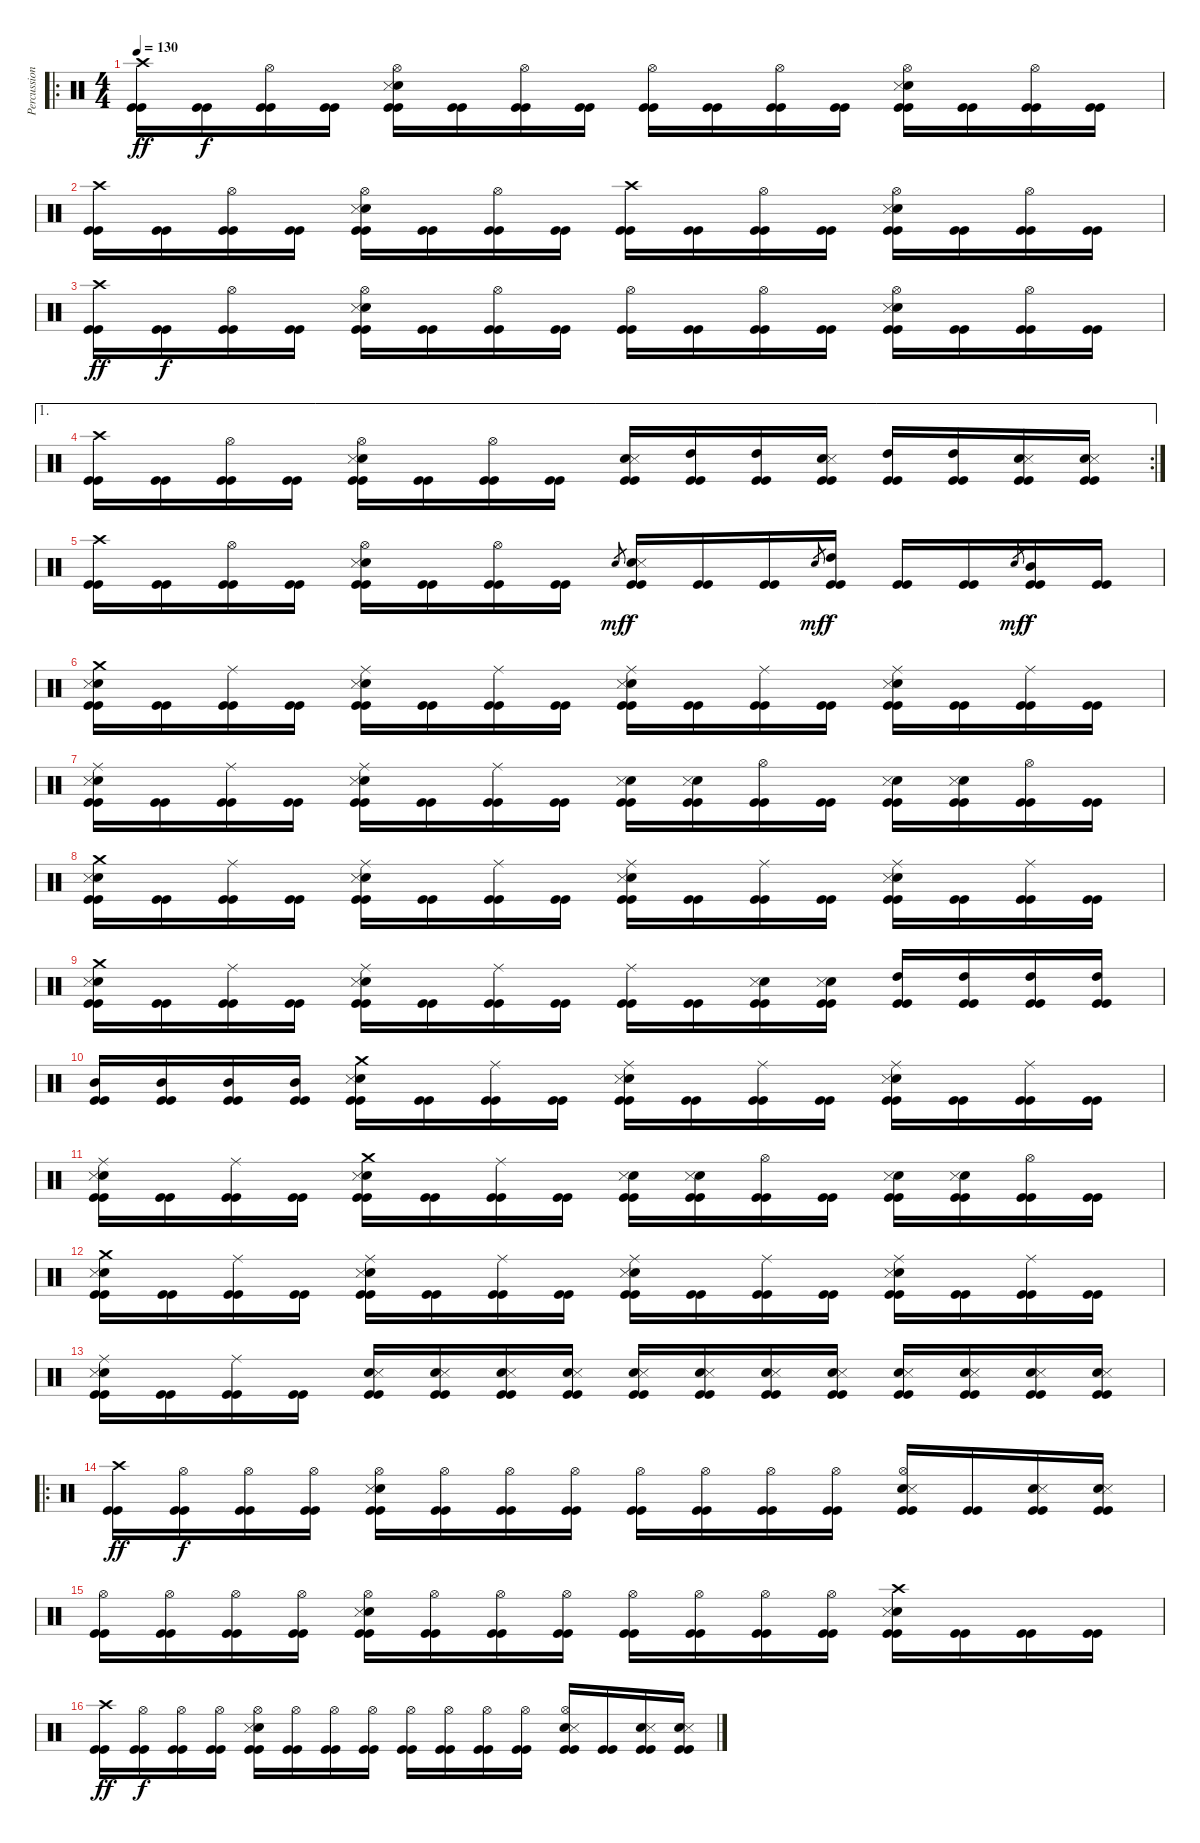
\track ("Percussion" "Percussion") {instrument percussion}
\staff {score}
\articulation defaults
\ro
\ts (4 4)
\tempo 130
\clef neutral
\ks c
("Crash high (hit)" "Kick (hit)" "Kick (hit)").16{dy ff} ("Kick (hit)" "Kick (hit)").16{dy f} ("Hi-Hat (open)" "Kick (hit)" "Kick (hit)").16 ("Kick (hit)" "Kick (hit)").16 ("Snare (hit) 2" "Snare (side stick) 3" "Hi-Hat (open)" "Kick (hit)" "Kick (hit)").16 ("Kick (hit)" "Kick (hit)").16 ("Hi-Hat (open)" "Kick (hit)" "Kick (hit)").16 ("Kick (hit)" "Kick (hit)").16 ("Hi-Hat (open)" "Kick (hit)" "Kick (hit)").16 ("Kick (hit)" "Kick (hit)").16 ("Hi-Hat (open)" "Kick (hit)" "Kick (hit)").16 ("Kick (hit)" "Kick (hit)").16 ("Snare (hit) 2" "Snare (side stick) 3" "Hi-Hat (open)" "Kick (hit)" "Kick (hit)").16 ("Kick (hit)" "Kick (hit)").16 ("Hi-Hat (open)" "Kick (hit)" "Kick (hit)").16 ("Kick (hit)" "Kick (hit)").16 |
("Crash high (hit)" "Kick (hit)" "Kick (hit)").16 ("Kick (hit)" "Kick (hit)").16 ("Hi-Hat (open)" "Kick (hit)" "Kick (hit)").16 ("Kick (hit)" "Kick (hit)").16 ("Snare (hit) 2" "Snare (side stick) 3" "Hi-Hat (open)" "Kick (hit)" "Kick (hit)").16 ("Kick (hit)" "Kick (hit)").16 ("Hi-Hat (open)" "Kick (hit)" "Kick (hit)").16 ("Kick (hit)" "Kick (hit)").16 ("Crash high (hit)" "Kick (hit)" "Kick (hit)").16 ("Kick (hit)" "Kick (hit)").16 ("Hi-Hat (open)" "Kick (hit)" "Kick (hit)").16 ("Kick (hit)" "Kick (hit)").16 ("Snare (hit) 2" "Snare (side stick) 3" "Hi-Hat (open)" "Kick (hit)" "Kick (hit)").16 ("Kick (hit)" "Kick (hit)").16 ("Hi-Hat (open)" "Kick (hit)" "Kick (hit)").16 ("Kick (hit)" "Kick (hit)").16 |
("Crash high (hit)" "Kick (hit)" "Kick (hit)").16{dy ff} ("Kick (hit)" "Kick (hit)").16{dy f} ("Hi-Hat (open)" "Kick (hit)" "Kick (hit)").16 ("Kick (hit)" "Kick (hit)").16 ("Snare (hit) 2" "Snare (side stick) 3" "Hi-Hat (open)" "Kick (hit)" "Kick (hit)").16 ("Kick (hit)" "Kick (hit)").16 ("Hi-Hat (open)" "Kick (hit)" "Kick (hit)").16 ("Kick (hit)" "Kick (hit)").16 ("Hi-Hat (open)" "Kick (hit)" "Kick (hit)").16 ("Kick (hit)" "Kick (hit)").16 ("Hi-Hat (open)" "Kick (hit)" "Kick (hit)").16 ("Kick (hit)" "Kick (hit)").16 ("Snare (hit) 2" "Snare (side stick) 3" "Hi-Hat (open)" "Kick (hit)" "Kick (hit)").16 ("Kick (hit)" "Kick (hit)").16 ("Hi-Hat (open)" "Kick (hit)" "Kick (hit)").16 ("Kick (hit)" "Kick (hit)").16 |
\ae 1
\rc 2
("Crash high (hit)" "Kick (hit)" "Kick (hit)").16 ("Kick (hit)" "Kick (hit)").16 ("Hi-Hat (open)" "Kick (hit)" "Kick (hit)").16 ("Kick (hit)" "Kick (hit)").16 ("Snare (hit) 2" "Snare (side stick) 3" "Hi-Hat (open)" "Kick (hit)" "Kick (hit)").16 ("Kick (hit)" "Kick (hit)").16 ("Hi-Hat (open)" "Kick (hit)" "Kick (hit)").16 ("Kick (hit)" "Kick (hit)").16 ("Snare (hit) 2" "Snare (side stick) 3" "Kick (hit)" "Kick (hit)").16 ("High Tom (hit)" "Kick (hit)" "Kick (hit)").16 ("High Tom (hit)" "Kick (hit)" "Kick (hit)").16 ("Snare (hit) 2" "Snare (side stick) 3" "Kick (hit)" "Kick (hit)").16 ("High Tom (hit)" "Kick (hit)" "Kick (hit)").16 ("High Tom (hit)" "Kick (hit)" "Kick (hit)").16 ("Snare (hit) 2" "Snare (side stick) 3" "Kick (hit)" "Kick (hit)").16 ("Snare (hit) 2" "Snare (side stick) 3" "Kick (hit)" "Kick (hit)").16 |
("Crash high (hit)" "Kick (hit)" "Kick (hit)").16 ("Kick (hit)" "Kick (hit)").16 ("Hi-Hat (open)" "Kick (hit)" "Kick (hit)").16 ("Kick (hit)" "Kick (hit)").16 ("Snare (hit) 2" "Snare (side stick) 3" "Hi-Hat (open)" "Kick (hit)" "Kick (hit)").16 ("Kick (hit)" "Kick (hit)").16 ("Hi-Hat (open)" "Kick (hit)" "Kick (hit)").16 ("Kick (hit)" "Kick (hit)").16 "Snare (hit)".8{gr dy mf} ("Snare (hit) 2" "Snare (side stick) 3" "Kick (hit)" "Kick (hit)").16{dy f} ("Kick (hit)" "Kick (hit)").16 ("Kick (hit)" "Kick (hit)").16 "Snare (hit)".8{gr dy mf} ("High Tom (hit)" "Kick (hit)" "Kick (hit)").16{dy f} ("Kick (hit)" "Kick (hit)").16 ("Kick (hit)" "Kick (hit)").16 "Snare (hit)".8{gr dy mf} ("Mid Tom (hit)" "Kick (hit)" "Kick (hit)").16{dy f} ("Kick (hit)" "Kick (hit)").16 |
("Snare (hit) 2" "Snare (side stick) 3" "Crash medium (hit)" "Kick (hit)" "Kick (hit)").16 ("Kick (hit)" "Kick (hit)").16 ("Ride (middle)" "Kick (hit)" "Kick (hit)").16 ("Kick (hit)" "Kick (hit)").16 ("Snare (hit) 2" "Snare (side stick) 3" "Ride (middle)" "Kick (hit)" "Kick (hit)").16 ("Kick (hit)" "Kick (hit)").16 ("Ride (middle)" "Kick (hit)" "Kick (hit)").16 ("Kick (hit)" "Kick (hit)").16 ("Snare (hit) 2" "Snare (side stick) 3" "Ride (middle)" "Kick (hit)" "Kick (hit)").16 ("Kick (hit)" "Kick (hit)").16 ("Ride (middle)" "Kick (hit)" "Kick (hit)").16 ("Kick (hit)" "Kick (hit)").16 ("Snare (hit) 2" "Snare (side stick) 3" "Ride (middle)" "Kick (hit)" "Kick (hit)").16 ("Kick (hit)" "Kick (hit)").16 ("Ride (middle)" "Kick (hit)" "Kick (hit)").16 ("Kick (hit)" "Kick (hit)").16 |
("Snare (hit) 2" "Snare (side stick) 3" "Ride (middle)" "Kick (hit)" "Kick (hit)").16 ("Kick (hit)" "Kick (hit)").16 ("Ride (middle)" "Kick (hit)" "Kick (hit)").16 ("Kick (hit)" "Kick (hit)").16 ("Snare (hit) 2" "Snare (side stick) 3" "Ride (middle)" "Kick (hit)" "Kick (hit)").16 ("Kick (hit)" "Kick (hit)").16 ("Ride (middle)" "Kick (hit)" "Kick (hit)").16 ("Kick (hit)" "Kick (hit)").16 ("Snare (hit) 2" "Snare (side stick) 3" "Kick (hit)" "Kick (hit)").16 ("Snare (hit) 2" "Snare (side stick) 3" "Kick (hit)" "Kick (hit)").16 ("Hi-Hat (open)" "Kick (hit)" "Kick (hit)").16 ("Kick (hit)" "Kick (hit)").16 ("Snare (hit) 2" "Snare (side stick) 3" "Kick (hit)" "Kick (hit)").16 ("Snare (hit) 2" "Snare (side stick) 3" "Kick (hit)" "Kick (hit)").16 ("Hi-Hat (open)" "Kick (hit)" "Kick (hit)").16 ("Kick (hit)" "Kick (hit)").16 |
("Snare (hit) 2" "Snare (side stick) 3" "Crash medium (hit)" "Kick (hit)" "Kick (hit)").16 ("Kick (hit)" "Kick (hit)").16 ("Ride (middle)" "Kick (hit)" "Kick (hit)").16 ("Kick (hit)" "Kick (hit)").16 ("Snare (hit) 2" "Snare (side stick) 3" "Ride (middle)" "Kick (hit)" "Kick (hit)").16 ("Kick (hit)" "Kick (hit)").16 ("Ride (middle)" "Kick (hit)" "Kick (hit)").16 ("Kick (hit)" "Kick (hit)").16 ("Snare (hit) 2" "Snare (side stick) 3" "Ride (middle)" "Kick (hit)" "Kick (hit)").16 ("Kick (hit)" "Kick (hit)").16 ("Ride (middle)" "Kick (hit)" "Kick (hit)").16 ("Kick (hit)" "Kick (hit)").16 ("Snare (hit) 2" "Snare (side stick) 3" "Ride (middle)" "Kick (hit)" "Kick (hit)").16 ("Kick (hit)" "Kick (hit)").16 ("Ride (middle)" "Kick (hit)" "Kick (hit)").16 ("Kick (hit)" "Kick (hit)").16 |
("Kick (hit)" "Crash medium (hit)" "Snare (hit) 2" "Snare (side stick) 3" "Kick (hit)").16 ("Kick (hit)" "Kick (hit)").16 ("Ride (middle)" "Kick (hit)" "Kick (hit)").16 ("Kick (hit)" "Kick (hit)").16 ("Kick (hit)" "Ride (middle)" "Snare (hit) 2" "Snare (side stick) 3" "Kick (hit)").16 ("Kick (hit)" "Kick (hit)").16 ("Ride (middle)" "Kick (hit)" "Kick (hit)").16 ("Kick (hit)" "Kick (hit)").16 ("Ride (middle)" "Kick (hit)" "Kick (hit)").16 ("Kick (hit)" "Kick (hit)").16 ("Snare (hit) 2" "Snare (side stick) 3" "Kick (hit)" "Kick (hit)").16 ("Snare (hit) 2" "Snare (side stick) 3" "Kick (hit)" "Kick (hit)").16 ("High Tom (hit)" "Kick (hit)" "Kick (hit)").16 ("High Tom (hit)" "Kick (hit)" "Kick (hit)").16 ("High Tom (hit)" "Kick (hit)" "Kick (hit)").16 ("High Tom (hit)" "Kick (hit)" "Kick (hit)").16 |
("Mid Tom (hit)" "Kick (hit)" "Kick (hit)").16 ("Mid Tom (hit)" "Kick (hit)" "Kick (hit)").16 ("Mid Tom (hit)" "Kick (hit)" "Kick (hit)").16 ("Mid Tom (hit)" "Kick (hit)" "Kick (hit)").16 ("Snare (hit) 2" "Snare (side stick) 3" "Crash medium (hit)" "Kick (hit)" "Kick (hit)").16 ("Kick (hit)" "Kick (hit)").16 ("Ride (middle)" "Kick (hit)" "Kick (hit)").16 ("Kick (hit)" "Kick (hit)").16 ("Snare (hit) 2" "Snare (side stick) 3" "Ride (middle)" "Kick (hit)" "Kick (hit)").16 ("Kick (hit)" "Kick (hit)").16 ("Ride (middle)" "Kick (hit)" "Kick (hit)").16 ("Kick (hit)" "Kick (hit)").16 ("Snare (hit) 2" "Snare (side stick) 3" "Ride (middle)" "Kick (hit)" "Kick (hit)").16 ("Kick (hit)" "Kick (hit)").16 ("Ride (middle)" "Kick (hit)" "Kick (hit)").16 ("Kick (hit)" "Kick (hit)").16 |
("Snare (hit) 2" "Snare (side stick) 3" "Ride (middle)" "Kick (hit)" "Kick (hit)").16 ("Kick (hit)" "Kick (hit)").16 ("Ride (middle)" "Kick (hit)" "Kick (hit)").16 ("Kick (hit)" "Kick (hit)").16 ("Snare (hit) 2" "Snare (side stick) 3" "Crash medium (hit)" "Kick (hit)" "Kick (hit)").16 ("Kick (hit)" "Kick (hit)").16 ("Ride (middle)" "Kick (hit)" "Kick (hit)").16 ("Kick (hit)" "Kick (hit)").16 ("Snare (hit) 2" "Snare (side stick) 3" "Kick (hit)" "Kick (hit)").16 ("Snare (hit) 2" "Snare (side stick) 3" "Kick (hit)" "Kick (hit)").16 ("Hi-Hat (open)" "Kick (hit)" "Kick (hit)").16 ("Kick (hit)" "Kick (hit)").16 ("Snare (hit) 2" "Snare (side stick) 3" "Kick (hit)" "Kick (hit)").16 ("Snare (hit) 2" "Snare (side stick) 3" "Kick (hit)" "Kick (hit)").16 ("Hi-Hat (open)" "Kick (hit)" "Kick (hit)").16 ("Kick (hit)" "Kick (hit)").16 |
("Snare (hit) 2" "Snare (side stick) 3" "Crash medium (hit)" "Kick (hit)" "Kick (hit)").16 ("Kick (hit)" "Kick (hit)").16 ("Ride (middle)" "Kick (hit)" "Kick (hit)").16 ("Kick (hit)" "Kick (hit)").16 ("Snare (hit) 2" "Snare (side stick) 3" "Ride (middle)" "Kick (hit)" "Kick (hit)").16 ("Kick (hit)" "Kick (hit)").16 ("Ride (middle)" "Kick (hit)" "Kick (hit)").16 ("Kick (hit)" "Kick (hit)").16 ("Snare (hit) 2" "Snare (side stick) 3" "Ride (middle)" "Kick (hit)" "Kick (hit)").16 ("Kick (hit)" "Kick (hit)").16 ("Ride (middle)" "Kick (hit)" "Kick (hit)").16 ("Kick (hit)" "Kick (hit)").16 ("Snare (hit) 2" "Snare (side stick) 3" "Ride (middle)" "Kick (hit)" "Kick (hit)").16 ("Kick (hit)" "Kick (hit)").16 ("Ride (middle)" "Kick (hit)" "Kick (hit)").16 ("Kick (hit)" "Kick (hit)").16 |
("Snare (hit) 2" "Snare (side stick) 3" "Ride (middle)" "Kick (hit)" "Kick (hit)").16 ("Kick (hit)" "Kick (hit)").16 ("Ride (middle)" "Kick (hit)" "Kick (hit)").16 ("Kick (hit)" "Kick (hit)").16 ("Snare (hit) 2" "Snare (side stick) 3" "Kick (hit)" "Kick (hit)").16 ("Snare (hit) 2" "Snare (side stick) 3" "Kick (hit)" "Kick (hit)").16 ("Snare (hit) 2" "Snare (side stick) 3" "Kick (hit)" "Kick (hit)").16 ("Snare (hit) 2" "Snare (side stick) 3" "Kick (hit)" "Kick (hit)").16 ("Snare (hit) 2" "Snare (side stick) 3" "Kick (hit)" "Kick (hit)").16 ("Snare (hit) 2" "Snare (side stick) 3" "Kick (hit)" "Kick (hit)").16 ("Snare (hit) 2" "Snare (side stick) 3" "Kick (hit)" "Kick (hit)").16 ("Snare (hit) 2" "Snare (side stick) 3" "Kick (hit)" "Kick (hit)").16 ("Snare (hit) 2" "Snare (side stick) 3" "Kick (hit)" "Kick (hit)").16 ("Snare (hit) 2" "Snare (side stick) 3" "Kick (hit)" "Kick (hit)").16 ("Snare (hit) 2" "Snare (side stick) 3" "Kick (hit)" "Kick (hit)").16 ("Snare (hit) 2" "Snare (side stick) 3" "Kick (hit)" "Kick (hit)").16 |
\ro
("Crash high (hit)" "Kick (hit)" "Kick (hit)").16{dy ff} ("Hi-Hat (open)" "Kick (hit)" "Kick (hit)").16{dy f} ("Hi-Hat (open)" "Kick (hit)" "Kick (hit)").16 ("Hi-Hat (open)" "Kick (hit)" "Kick (hit)").16 ("Snare (hit) 2" "Snare (side stick) 3" "Hi-Hat (open)" "Kick (hit)" "Kick (hit)").16 ("Hi-Hat (open)" "Kick (hit)" "Kick (hit)").16 ("Hi-Hat (open)" "Kick (hit)" "Kick (hit)").16 ("Hi-Hat (open)" "Kick (hit)" "Kick (hit)").16 ("Hi-Hat (open)" "Kick (hit)" "Kick (hit)").16 ("Hi-Hat (open)" "Kick (hit)" "Kick (hit)").16 ("Hi-Hat (open)" "Kick (hit)" "Kick (hit)").16 ("Hi-Hat (open)" "Kick (hit)" "Kick (hit)").16 ("Snare (hit) 2" "Snare (side stick) 3" "Hi-Hat (open)" "Kick (hit)" "Kick (hit)").16 ("Kick (hit)" "Kick (hit)").16 ("Snare (hit) 2" "Snare (side stick) 3" "Kick (hit)" "Kick (hit)").16 ("Snare (hit) 2" "Snare (side stick) 3" "Kick (hit)" "Kick (hit)").16 |
("Hi-Hat (open)" "Kick (hit)" "Kick (hit)").16 ("Hi-Hat (open)" "Kick (hit)" "Kick (hit)").16 ("Hi-Hat (open)" "Kick (hit)" "Kick (hit)").16 ("Hi-Hat (open)" "Kick (hit)" "Kick (hit)").16 ("Snare (hit) 2" "Snare (side stick) 3" "Hi-Hat (open)" "Kick (hit)" "Kick (hit)").16 ("Hi-Hat (open)" "Kick (hit)" "Kick (hit)").16 ("Hi-Hat (open)" "Kick (hit)" "Kick (hit)").16 ("Hi-Hat (open)" "Kick (hit)" "Kick (hit)").16 ("Hi-Hat (open)" "Kick (hit)" "Kick (hit)").16 ("Hi-Hat (open)" "Kick (hit)" "Kick (hit)").16 ("Hi-Hat (open)" "Kick (hit)" "Kick (hit)").16 ("Hi-Hat (open)" "Kick (hit)" "Kick (hit)").16 ("Snare (hit) 2" "Snare (side stick) 3" "Crash high (hit)" "Kick (hit)" "Kick (hit)").16 ("Kick (hit)" "Kick (hit)").16 ("Kick (hit)" "Kick (hit)").16 ("Kick (hit)" "Kick (hit)").16 |
("Crash high (hit)" "Kick (hit)" "Kick (hit)").16{dy ff} ("Hi-Hat (open)" "Kick (hit)" "Kick (hit)").16{dy f} ("Hi-Hat (open)" "Kick (hit)" "Kick (hit)").16 ("Hi-Hat (open)" "Kick (hit)" "Kick (hit)").16 ("Snare (hit) 2" "Snare (side stick) 3" "Hi-Hat (open)" "Kick (hit)" "Kick (hit)").16 ("Hi-Hat (open)" "Kick (hit)" "Kick (hit)").16 ("Hi-Hat (open)" "Kick (hit)" "Kick (hit)").16 ("Hi-Hat (open)" "Kick (hit)" "Kick (hit)").16 ("Hi-Hat (open)" "Kick (hit)" "Kick (hit)").16 ("Hi-Hat (open)" "Kick (hit)" "Kick (hit)").16 ("Hi-Hat (open)" "Kick (hit)" "Kick (hit)").16 ("Hi-Hat (open)" "Kick (hit)" "Kick (hit)").16 ("Snare (hit) 2" "Snare (side stick) 3" "Hi-Hat (open)" "Kick (hit)" "Kick (hit)").16 ("Kick (hit)" "Kick (hit)").16 ("Snare (hit) 2" "Snare (side stick) 3" "Kick (hit)" "Kick (hit)").16 ("Snare (hit) 2" "Snare (side stick) 3" "Kick (hit)" "Kick (hit)").16
